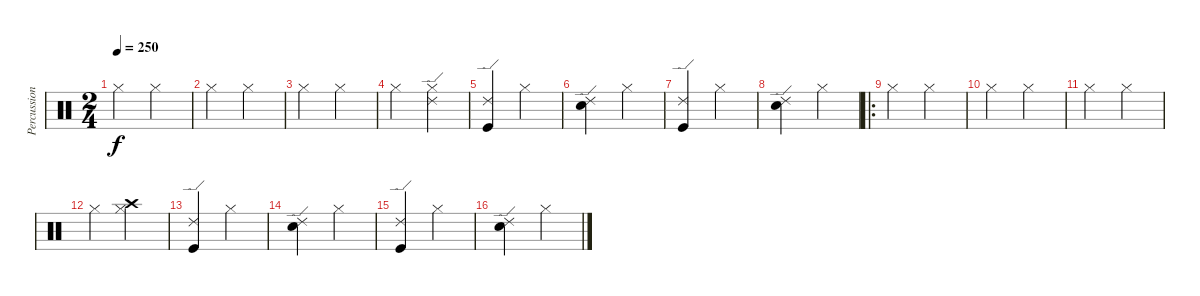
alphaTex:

\track ("Percussion" "Percussion") {instrument percussion}
\staff {score}
\articulation defaults
\ts (2 4)
\tempo 250
\clef neutral
\ks c "Hi-Hat (closed)".4{dy f} "Hi-Hat (closed)".4
|
"Hi-Hat (closed)".4 "Hi-Hat (closed)".4 |
"Hi-Hat (closed)".4 "Hi-Hat (closed)".4 |
"Hi-Hat (closed)".4 ("Ride (edge) 2" "Hi-Hat (closed)").4 |
("Ride (edge) 2" "Kick (hit)").4 "Hi-Hat (closed)".4 |
("Ride (edge) 2" "Snare (hit) 2").4 "Hi-Hat (closed)".4 |
("Ride (edge) 2" "Kick (hit)").4 "Hi-Hat (closed)".4 |
("Ride (edge) 2" "Snare (hit) 2").4 "Hi-Hat (closed)".4 |
\ro "Hi-Hat (closed)".4 "Hi-Hat (closed)".4
|
"Hi-Hat (closed)".4 "Hi-Hat (closed)".4 |
"Hi-Hat (closed)".4 "Hi-Hat (closed)".4 |
"Hi-Hat (closed)".4 ("Crash high (hit)" "Hi-Hat (closed)").4 |
("Ride (edge) 2" "Kick (hit)").4 "Hi-Hat (closed)".4 |
("Ride (edge) 2" "Snare (hit) 2").4 "Hi-Hat (closed)".4 |
("Ride (edge) 2" "Kick (hit)").4 "Hi-Hat (closed)".4 |
("Ride (edge) 2" "Snare (hit) 2").4 "Hi-Hat (closed)".4
